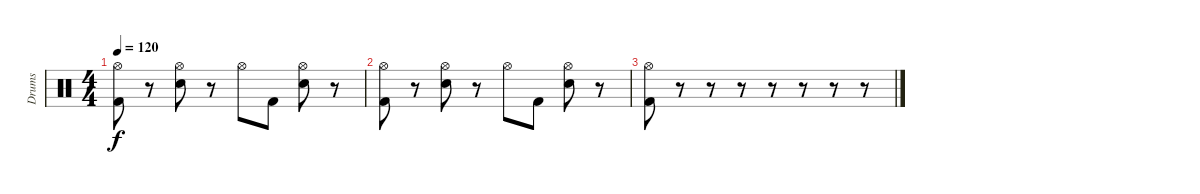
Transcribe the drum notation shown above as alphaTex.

\track ("Drums" "Drums") {instrument percussion}
\staff {score}
\articulation defaults
\ts (4 4)
\tempo 120
\clef neutral
\ks c
("Hi-Hat (open)" "Kick (hit) 2").8{dy f} r.8 ("Hi-Hat (open)" "Hand Clap (hit)").8 r.8 "Hi-Hat (open)".8 "Kick (hit) 2".8 ("Hi-Hat (open)" "Hand Clap (hit)").8 r.8 |
("Hi-Hat (open)" "Kick (hit) 2").8 r.8 ("Hi-Hat (open)" "Hand Clap (hit)").8 r.8 "Hi-Hat (open)".8 "Kick (hit) 2".8 ("Hi-Hat (open)" "Hand Clap (hit)").8 r.8 |
("Hi-Hat (open)" "Kick (hit) 2").8 r.8 r.8 r.8 r.8 r.8 r.8 r.8
